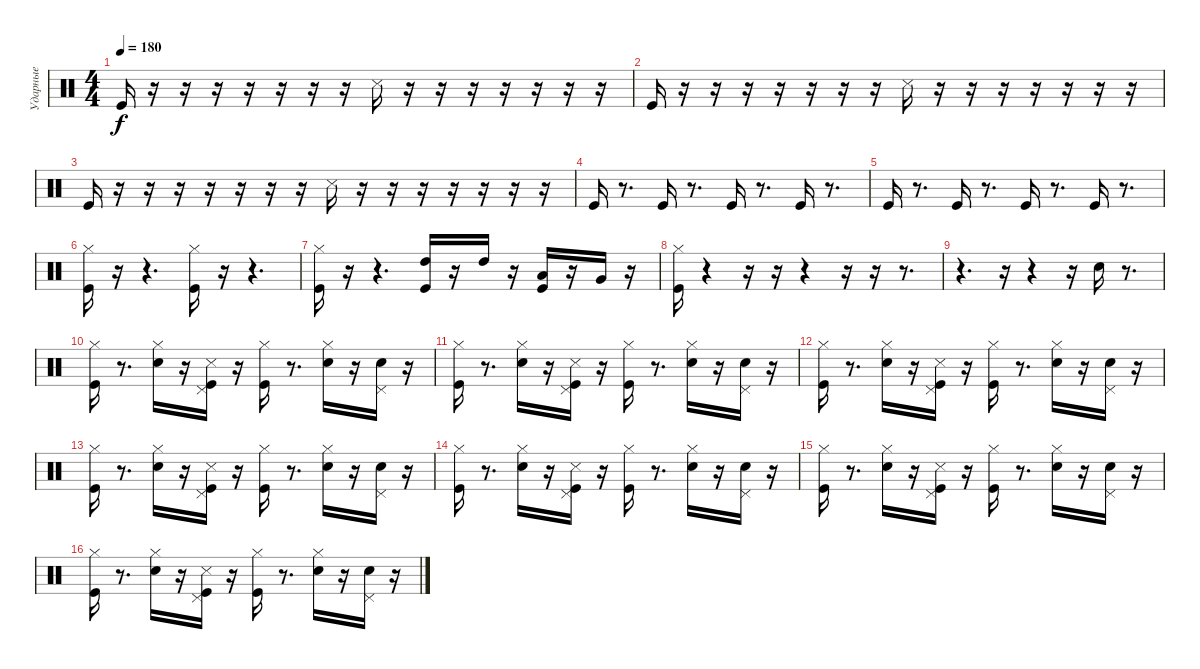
\track ("Ударные" "Ударные") {instrument percussion}
\staff {score}
\articulation defaults
\ts (4 4)
\tempo 180
\clef neutral
\ks c "Kick (hit)".16{dy f}
r.16 r.16 r.16 r.16 r.16 r.16 r.16 "Snare (side stick) 3".16 r.16 r.16 r.16 r.16 r.16 r.16 r.16 |
"Kick (hit)".16 r.16 r.16 r.16 r.16 r.16 r.16 r.16 "Snare (side stick) 3".16 r.16 r.16 r.16 r.16 r.16 r.16 r.16 |
"Kick (hit)".16 r.16 r.16 r.16 r.16 r.16 r.16 r.16 "Snare (side stick) 3".16 r.16 r.16 r.16 r.16 r.16 r.16 r.16 |
"Kick (hit)".16 r.8{d} "Kick (hit)".16 r.8{d} "Kick (hit)".16 r.8{d} "Kick (hit)".16 r.8{d} |
"Kick (hit)".16 r.8{d} "Kick (hit)".16 r.8{d} "Kick (hit)".16 r.8{d} "Kick (hit)".16 r.8{d} |
("Kick (hit)" "Hi-Hat (closed)").16 r.16 r.4{d} ("Kick (hit)" "Hi-Hat (closed)").16 r.16 r.4{d} |
("Kick (hit)" "Hi-Hat (closed)").16 r.16 r.4{d} ("High Tom (hit)" "Kick (hit)").16 r.16 "High Tom (hit)".16 r.16 ("Kick (hit)" "Low Tom (hit)").16 r.16 "Very Low Tom (hit)".16 r.16 |
("Hi-Hat (closed)" "Kick (hit)").16 r.4 r.16 r.16 r.4 r.16 r.16 r.8{d} |
r.4{d} r.16 r.4 r.16 "Snare (hit) 2".16 r.8{d} |
("Hi-Hat (closed)" "Kick (hit)").16 r.8{d} ("Hi-Hat (closed)" "Snare (hit) 2").16 r.16 ("Snare (side stick) 3" "Kick (hit)" "Pedal Hi-Hat (hit)").16 r.16 ("Hi-Hat (closed)" "Kick (hit)").16 r.8{d} ("Hi-Hat (closed)" "Snare (hit) 2").16 r.16 ("Snare (hit) 2" "Pedal Hi-Hat (hit)").16 r.16 |
("Hi-Hat (closed)" "Kick (hit)").16 r.8{d} ("Hi-Hat (closed)" "Snare (hit) 2").16 r.16 ("Snare (side stick) 3" "Kick (hit)" "Pedal Hi-Hat (hit)").16 r.16 ("Hi-Hat (closed)" "Kick (hit)").16 r.8{d} ("Hi-Hat (closed)" "Snare (hit) 2").16 r.16 ("Snare (hit) 2" "Pedal Hi-Hat (hit)").16 r.16 |
("Hi-Hat (closed)" "Kick (hit)").16 r.8{d} ("Hi-Hat (closed)" "Snare (hit) 2").16 r.16 ("Snare (side stick) 3" "Kick (hit)" "Pedal Hi-Hat (hit)").16 r.16 ("Hi-Hat (closed)" "Kick (hit)").16 r.8{d} ("Hi-Hat (closed)" "Snare (hit) 2").16 r.16 ("Snare (hit) 2" "Pedal Hi-Hat (hit)").16 r.16 |
("Hi-Hat (closed)" "Kick (hit)").16 r.8{d} ("Hi-Hat (closed)" "Snare (hit) 2").16 r.16 ("Snare (side stick) 3" "Kick (hit)" "Pedal Hi-Hat (hit)").16 r.16 ("Hi-Hat (closed)" "Kick (hit)").16 r.8{d} ("Hi-Hat (closed)" "Snare (hit) 2").16 r.16 ("Snare (hit) 2" "Pedal Hi-Hat (hit)").16 r.16 |
("Hi-Hat (closed)" "Kick (hit)").16 r.8{d} ("Hi-Hat (closed)" "Snare (hit) 2").16 r.16 ("Snare (side stick) 3" "Kick (hit)" "Pedal Hi-Hat (hit)").16 r.16 ("Hi-Hat (closed)" "Kick (hit)").16 r.8{d} ("Hi-Hat (closed)" "Snare (hit) 2").16 r.16 ("Snare (hit) 2" "Pedal Hi-Hat (hit)").16 r.16 |
("Hi-Hat (closed)" "Kick (hit)").16 r.8{d} ("Hi-Hat (closed)" "Snare (hit) 2").16 r.16 ("Snare (side stick) 3" "Kick (hit)" "Pedal Hi-Hat (hit)").16 r.16 ("Hi-Hat (closed)" "Kick (hit)").16 r.8{d} ("Hi-Hat (closed)" "Snare (hit) 2").16 r.16 ("Snare (hit) 2" "Pedal Hi-Hat (hit)").16 r.16 |
("Hi-Hat (closed)" "Kick (hit)").16 r.8{d} ("Hi-Hat (closed)" "Snare (hit) 2").16 r.16 ("Snare (side stick) 3" "Kick (hit)" "Pedal Hi-Hat (hit)").16 r.16 ("Hi-Hat (closed)" "Kick (hit)").16 r.8{d} ("Hi-Hat (closed)" "Snare (hit) 2").16 r.16 ("Snare (hit) 2" "Pedal Hi-Hat (hit)").16 r.16
